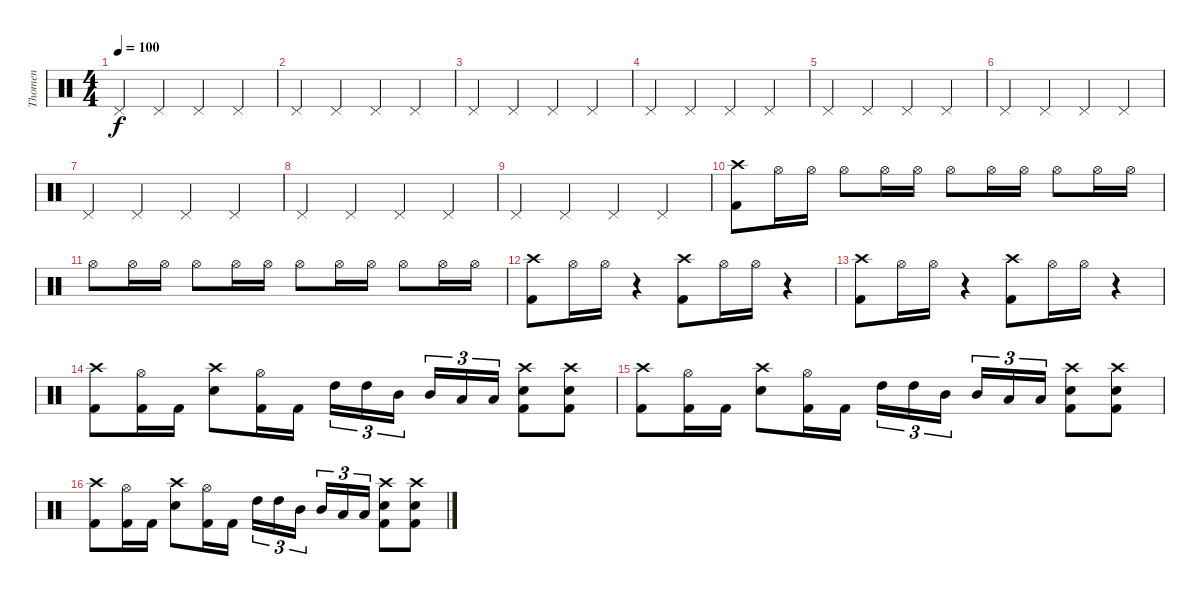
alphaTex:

\track ("Thomen" "Thomen") {instrument percussion}
\staff {score}
\articulation defaults
\ts (4 4)
\tempo 100
\clef neutral
\ks c "Pedal Hi-Hat (hit)".4{dy f} "Pedal Hi-Hat (hit)".4 "Pedal Hi-Hat (hit)".4 "Pedal Hi-Hat (hit)".4
|
"Pedal Hi-Hat (hit)".4 "Pedal Hi-Hat (hit)".4 "Pedal Hi-Hat (hit)".4 "Pedal Hi-Hat (hit)".4 |
"Pedal Hi-Hat (hit)".4 "Pedal Hi-Hat (hit)".4 "Pedal Hi-Hat (hit)".4 "Pedal Hi-Hat (hit)".4 |
"Pedal Hi-Hat (hit)".4 "Pedal Hi-Hat (hit)".4 "Pedal Hi-Hat (hit)".4 "Pedal Hi-Hat (hit)".4 |
"Pedal Hi-Hat (hit)".4 "Pedal Hi-Hat (hit)".4 "Pedal Hi-Hat (hit)".4 "Pedal Hi-Hat (hit)".4 |
"Pedal Hi-Hat (hit)".4 "Pedal Hi-Hat (hit)".4 "Pedal Hi-Hat (hit)".4 "Pedal Hi-Hat (hit)".4 |
"Pedal Hi-Hat (hit)".4 "Pedal Hi-Hat (hit)".4 "Pedal Hi-Hat (hit)".4 "Pedal Hi-Hat (hit)".4 |
"Pedal Hi-Hat (hit)".4 "Pedal Hi-Hat (hit)".4 "Pedal Hi-Hat (hit)".4 "Pedal Hi-Hat (hit)".4 |
"Pedal Hi-Hat (hit)".4 "Pedal Hi-Hat (hit)".4 "Pedal Hi-Hat (hit)".4 "Pedal Hi-Hat (hit)".4 |
("Crash high (hit)" "Kick (hit) 2").8 "Hi-Hat (open)".16 "Hi-Hat (open)".16 "Hi-Hat (open)".8 "Hi-Hat (open)".16 "Hi-Hat (open)".16 "Hi-Hat (open)".8 "Hi-Hat (open)".16 "Hi-Hat (open)".16 "Hi-Hat (open)".8 "Hi-Hat (open)".16 "Hi-Hat (open)".16 |
"Hi-Hat (open)".8 "Hi-Hat (open)".16 "Hi-Hat (open)".16 "Hi-Hat (open)".8 "Hi-Hat (open)".16 "Hi-Hat (open)".16 "Hi-Hat (open)".8 "Hi-Hat (open)".16 "Hi-Hat (open)".16 "Hi-Hat (open)".8 "Hi-Hat (open)".16 "Hi-Hat (open)".16 |
("Crash high (hit)" "Kick (hit) 2").8 "Hi-Hat (open)".16 "Hi-Hat (open)".16 r.4 ("Crash high (hit)" "Kick (hit) 2").8 "Hi-Hat (open)".16 "Hi-Hat (open)".16 r.4 |
("Crash high (hit)" "Kick (hit) 2").8 "Hi-Hat (open)".16 "Hi-Hat (open)".16 r.4 ("Crash high (hit)" "Kick (hit) 2").8 "Hi-Hat (open)".16 "Hi-Hat (open)".16 r.4 |
("Crash high (hit)" "Kick (hit) 2").8 ("Hi-Hat (open)" "Kick (hit) 2").16 "Kick (hit) 2".16 ("Crash high (hit)" "Snare (hit) 2").8 ("Hi-Hat (open)" "Kick (hit) 2").16 "Kick (hit) 2".16 "High Tom (hit)".16{tu (3 2)} "High Tom (hit)".16{tu (3 2)} "Mid Tom (hit)".16{tu (3 2)} "Mid Tom (hit)".16{tu (3 2)} "Low Tom (hit)".16{tu (3 2)} "Low Tom (hit)".16{tu (3 2)} ("Crash high (hit)" "Snare (hit) 2" "Kick (hit) 2").8 ("Crash high (hit)" "Snare (hit) 2" "Kick (hit) 2").8 |
("Crash high (hit)" "Kick (hit) 2").8 ("Hi-Hat (open)" "Kick (hit) 2").16 "Kick (hit) 2".16 ("Crash high (hit)" "Snare (hit) 2").8 ("Hi-Hat (open)" "Kick (hit) 2").16 "Kick (hit) 2".16 "High Tom (hit)".16{tu (3 2)} "High Tom (hit)".16{tu (3 2)} "Mid Tom (hit)".16{tu (3 2)} "Mid Tom (hit)".16{tu (3 2)} "Low Tom (hit)".16{tu (3 2)} "Low Tom (hit)".16{tu (3 2)} ("Crash high (hit)" "Snare (hit) 2" "Kick (hit) 2").8 ("Crash high (hit)" "Snare (hit) 2" "Kick (hit) 2").8 |
("Crash high (hit)" "Kick (hit) 2").8 ("Hi-Hat (open)" "Kick (hit) 2").16 "Kick (hit) 2".16 ("Crash high (hit)" "Snare (hit) 2").8 ("Hi-Hat (open)" "Kick (hit) 2").16 "Kick (hit) 2".16 "High Tom (hit)".16{tu (3 2)} "High Tom (hit)".16{tu (3 2)} "Mid Tom (hit)".16{tu (3 2)} "Mid Tom (hit)".16{tu (3 2)} "Low Tom (hit)".16{tu (3 2)} "Low Tom (hit)".16{tu (3 2)} ("Crash high (hit)" "Snare (hit) 2" "Kick (hit) 2").8 ("Crash high (hit)" "Snare (hit) 2" "Kick (hit) 2").8
